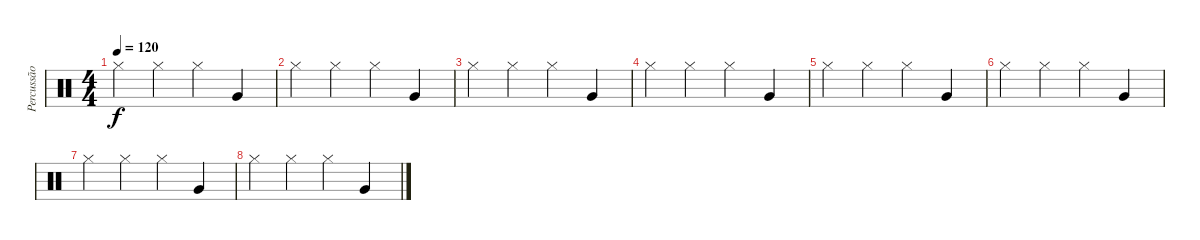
\track ("Percussão" "Percussão") {instrument percussion}
\staff {score}
\articulation defaults
\ts (4 4)
\tempo 120
\clef neutral
\ks c "Hi-Hat (closed)".4{dy f} "Hi-Hat (closed)".4 "Hi-Hat (closed)".4 "Very Low Tom (hit)".4
|
"Hi-Hat (closed)".4 "Hi-Hat (closed)".4 "Hi-Hat (closed)".4 "Very Low Tom (hit)".4 |
"Hi-Hat (closed)".4 "Hi-Hat (closed)".4 "Hi-Hat (closed)".4 "Very Low Tom (hit)".4 |
"Hi-Hat (closed)".4 "Hi-Hat (closed)".4 "Hi-Hat (closed)".4 "Very Low Tom (hit)".4 |
"Hi-Hat (closed)".4 "Hi-Hat (closed)".4 "Hi-Hat (closed)".4 "Very Low Tom (hit)".4 |
"Hi-Hat (closed)".4 "Hi-Hat (closed)".4 "Hi-Hat (closed)".4 "Very Low Tom (hit)".4 |
"Hi-Hat (closed)".4 "Hi-Hat (closed)".4 "Hi-Hat (closed)".4 "Very Low Tom (hit)".4 |
"Hi-Hat (closed)".4 "Hi-Hat (closed)".4 "Hi-Hat (closed)".4 "Very Low Tom (hit)".4
